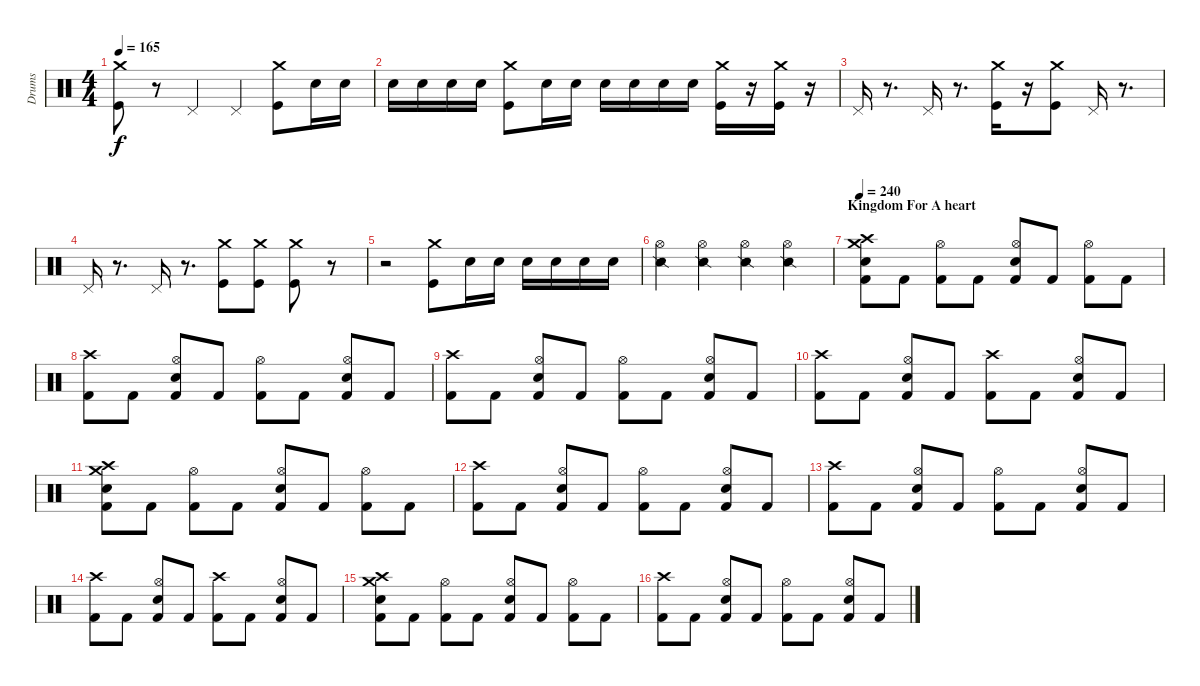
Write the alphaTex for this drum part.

\track ("Drums" "Drums") {instrument percussion}
\staff {score}
\articulation defaults
\ts (4 4)
\tempo 165
\clef neutral
\ks c
("Crash medium (hit)" "Kick (hit)").8{dy f} r.8 "Pedal Hi-Hat (hit)".4 "Pedal Hi-Hat (hit)".4 ("Crash medium (hit)" "Kick (hit)").8 "Electric Snare (hit)".16 "Electric Snare (hit)".16 |
"Electric Snare (hit)".16 "Electric Snare (hit)".16 "Electric Snare (hit)".16 "Electric Snare (hit)".16 ("Kick (hit)" "Crash medium (hit)").8 "Electric Snare (hit)".16 "Electric Snare (hit)".16 "Electric Snare (hit)".16 "Electric Snare (hit)".16 "Electric Snare (hit)".16 "Electric Snare (hit)".16 ("Crash medium (hit)" "Kick (hit)").16 r.16 ("Kick (hit)" "Crash medium (hit)").16 r.16 |
"Pedal Hi-Hat (hit)".16 r.8{d} "Pedal Hi-Hat (hit)".16 r.8{d} ("Crash medium (hit)" "Kick (hit)").16 r.16 ("Kick (hit)" "Crash medium (hit)").8 "Pedal Hi-Hat (hit)".16 r.8{d} |
"Pedal Hi-Hat (hit)".16 r.8{d} "Pedal Hi-Hat (hit)".16 r.8{d} ("Crash medium (hit)" "Kick (hit)").8 ("Kick (hit)" "Crash medium (hit)").8 ("Crash medium (hit)" "Kick (hit)").8 r.8 |
r.2 ("Kick (hit)" "Crash medium (hit)").8 "Electric Snare (hit)".16 "Electric Snare (hit)".16 "Electric Snare (hit)".16 "Electric Snare (hit)".16 "Electric Snare (hit)".16 "Electric Snare (hit)".16 |
("Snare (side stick) 2" "Hi-Hat (open)").4 ("Snare (side stick) 2" "Hi-Hat (open)").4 ("Snare (side stick) 2" "Hi-Hat (open)").4 ("Snare (side stick) 2" "Hi-Hat (open)").4 |
\section ("" "Kingdom For A heart")
\tempo 240
("Crash high (hit)" "Kick (hit) 2" "Crash medium (hit)" "Electric Snare (hit)").8 "Kick (hit) 2".8 ("Hi-Hat (open)" "Kick (hit) 2").8 "Kick (hit) 2".8 ("Hi-Hat (open)" "Kick (hit) 2" "Electric Snare (hit)").8 "Kick (hit) 2".8 ("Hi-Hat (open)" "Kick (hit) 2").8 "Kick (hit) 2".8 |
("Crash high (hit)" "Kick (hit) 2").8 "Kick (hit) 2".8 ("Hi-Hat (open)" "Kick (hit) 2" "Electric Snare (hit)").8 "Kick (hit) 2".8 ("Hi-Hat (open)" "Kick (hit) 2").8 "Kick (hit) 2".8 ("Hi-Hat (open)" "Kick (hit) 2" "Electric Snare (hit)").8 "Kick (hit) 2".8 |
("Crash high (hit)" "Kick (hit) 2").8 "Kick (hit) 2".8 ("Hi-Hat (open)" "Kick (hit) 2" "Electric Snare (hit)").8 "Kick (hit) 2".8 ("Hi-Hat (open)" "Kick (hit) 2").8 "Kick (hit) 2".8 ("Hi-Hat (open)" "Kick (hit) 2" "Electric Snare (hit)").8 "Kick (hit) 2".8 |
("Crash high (hit)" "Kick (hit) 2").8 "Kick (hit) 2".8 ("Hi-Hat (open)" "Kick (hit) 2" "Electric Snare (hit)").8 "Kick (hit) 2".8 ("Crash high (hit)" "Kick (hit) 2").8 "Kick (hit) 2".8 ("Hi-Hat (open)" "Kick (hit) 2" "Electric Snare (hit)").8 "Kick (hit) 2".8 |
("Crash high (hit)" "Kick (hit) 2" "Crash medium (hit)" "Electric Snare (hit)").8 "Kick (hit) 2".8 ("Hi-Hat (open)" "Kick (hit) 2").8 "Kick (hit) 2".8 ("Hi-Hat (open)" "Kick (hit) 2" "Electric Snare (hit)").8 "Kick (hit) 2".8 ("Hi-Hat (open)" "Kick (hit) 2").8 "Kick (hit) 2".8 |
("Crash high (hit)" "Kick (hit) 2").8 "Kick (hit) 2".8 ("Hi-Hat (open)" "Kick (hit) 2" "Electric Snare (hit)").8 "Kick (hit) 2".8 ("Hi-Hat (open)" "Kick (hit) 2").8 "Kick (hit) 2".8 ("Hi-Hat (open)" "Kick (hit) 2" "Electric Snare (hit)").8 "Kick (hit) 2".8 |
("Crash high (hit)" "Kick (hit) 2").8 "Kick (hit) 2".8 ("Hi-Hat (open)" "Kick (hit) 2" "Electric Snare (hit)").8 "Kick (hit) 2".8 ("Hi-Hat (open)" "Kick (hit) 2").8 "Kick (hit) 2".8 ("Hi-Hat (open)" "Kick (hit) 2" "Electric Snare (hit)").8 "Kick (hit) 2".8 |
("Crash high (hit)" "Kick (hit) 2").8 "Kick (hit) 2".8 ("Hi-Hat (open)" "Kick (hit) 2" "Electric Snare (hit)").8 "Kick (hit) 2".8 ("Crash high (hit)" "Kick (hit) 2").8 "Kick (hit) 2".8 ("Hi-Hat (open)" "Kick (hit) 2" "Electric Snare (hit)").8 "Kick (hit) 2".8 |
("Crash high (hit)" "Kick (hit) 2" "Crash medium (hit)" "Electric Snare (hit)").8 "Kick (hit) 2".8 ("Hi-Hat (open)" "Kick (hit) 2").8 "Kick (hit) 2".8 ("Hi-Hat (open)" "Kick (hit) 2" "Electric Snare (hit)").8 "Kick (hit) 2".8 ("Hi-Hat (open)" "Kick (hit) 2").8 "Kick (hit) 2".8 |
("Crash high (hit)" "Kick (hit) 2").8 "Kick (hit) 2".8 ("Hi-Hat (open)" "Kick (hit) 2" "Electric Snare (hit)").8 "Kick (hit) 2".8 ("Hi-Hat (open)" "Kick (hit) 2").8 "Kick (hit) 2".8 ("Hi-Hat (open)" "Kick (hit) 2" "Electric Snare (hit)").8 "Kick (hit) 2".8
